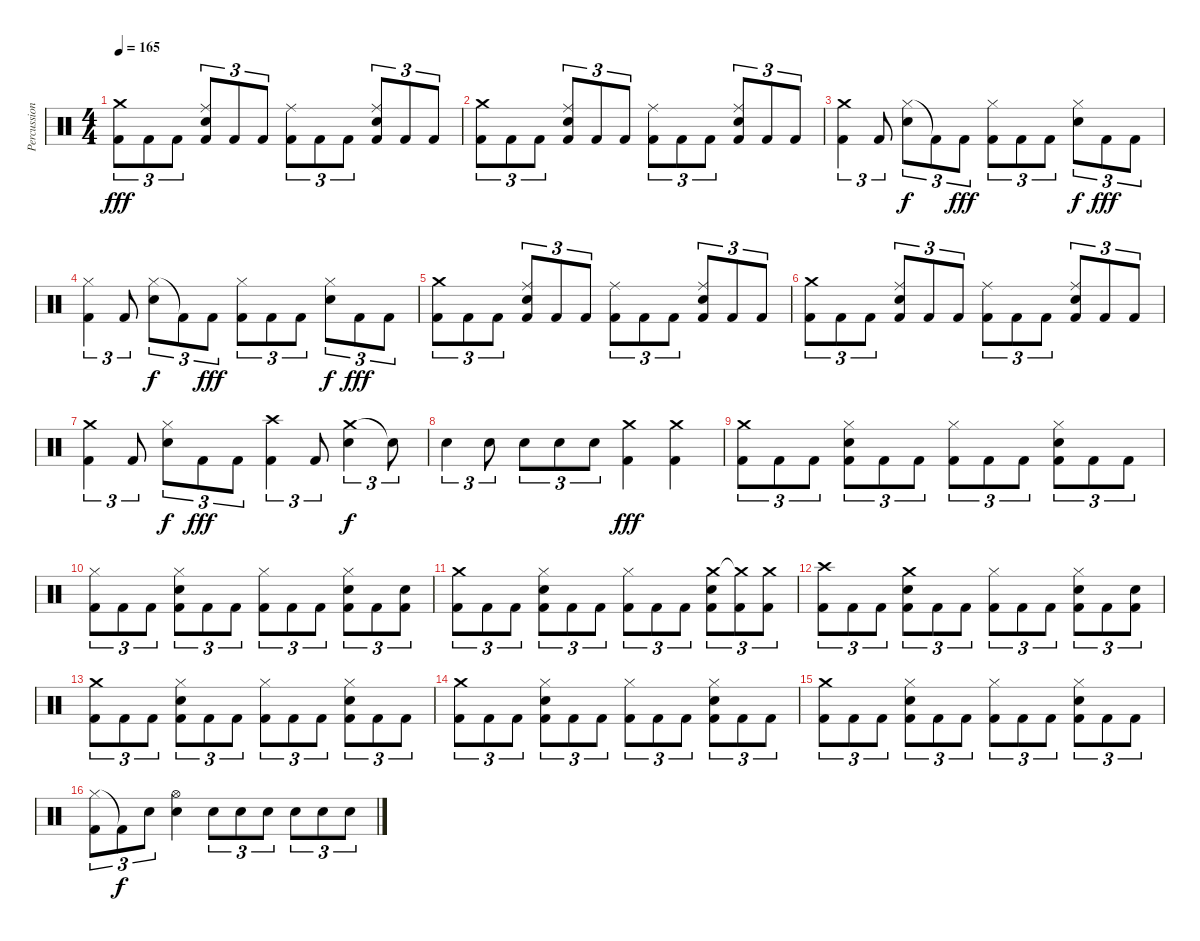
\track ("Percussion" "Percussion") {instrument percussion}
\staff {score}
\articulation defaults
\ts (4 4)
\tempo 165
\clef neutral
\ks c
("Crash medium (hit)" "Kick (hit) 2").8{tu (3 2) dy fff} "Kick (hit) 2".8{tu (3 2)} "Kick (hit) 2".8{tu (3 2)} ("Ride (middle)" "Electric Snare (hit)" "Kick (hit) 2").8{tu (3 2)} "Kick (hit) 2".8{tu (3 2)} "Kick (hit) 2".8{tu (3 2)} ("Ride (middle)" "Kick (hit) 2").8{tu (3 2)} "Kick (hit) 2".8{tu (3 2)} "Kick (hit) 2".8{tu (3 2)} ("Ride (middle)" "Electric Snare (hit)" "Kick (hit) 2").8{tu (3 2)} "Kick (hit) 2".8{tu (3 2)} "Kick (hit) 2".8{tu (3 2)} |
("Crash medium (hit)" "Kick (hit) 2").8{tu (3 2)} "Kick (hit) 2".8{tu (3 2)} "Kick (hit) 2".8{tu (3 2)} ("Ride (middle)" "Electric Snare (hit)" "Kick (hit) 2").8{tu (3 2)} "Kick (hit) 2".8{tu (3 2)} "Kick (hit) 2".8{tu (3 2)} ("Ride (middle)" "Kick (hit) 2").8{tu (3 2)} "Kick (hit) 2".8{tu (3 2)} "Kick (hit) 2".8{tu (3 2)} ("Ride (middle)" "Electric Snare (hit)" "Kick (hit) 2").8{tu (3 2)} "Kick (hit) 2".8{tu (3 2)} "Kick (hit) 2".8{tu (3 2)} |
("Crash medium (hit)" "Kick (hit) 2").4{tu (3 2)} "Kick (hit) 2".8{tu (3 2)} ("Hi-Hat (closed)" "Electric Snare (hit)").8{tu (3 2) dy f} "Kick (hit) 2"{t}.8{tu (3 2)} "Kick (hit) 2".8{tu (3 2) dy fff} ("Hi-Hat (closed)" "Kick (hit) 2").8{tu (3 2)} "Kick (hit) 2".8{tu (3 2)} "Kick (hit) 2".8{tu (3 2)} ("Hi-Hat (closed)" "Electric Snare (hit)").8{tu (3 2) dy f} "Kick (hit) 2".8{tu (3 2) dy fff} "Kick (hit) 2".8{tu (3 2)} |
("Hi-Hat (closed)" "Kick (hit) 2").4{tu (3 2)} "Kick (hit) 2".8{tu (3 2)} ("Hi-Hat (closed)" "Electric Snare (hit)").8{tu (3 2) dy f} "Kick (hit) 2"{t}.8{tu (3 2)} "Kick (hit) 2".8{tu (3 2) dy fff} ("Hi-Hat (closed)" "Kick (hit) 2").8{tu (3 2)} "Kick (hit) 2".8{tu (3 2)} "Kick (hit) 2".8{tu (3 2)} ("Hi-Hat (closed)" "Electric Snare (hit)").8{tu (3 2) dy f} "Kick (hit) 2".8{tu (3 2) dy fff} "Kick (hit) 2".8{tu (3 2)} |
("Crash medium (hit)" "Kick (hit) 2").8{tu (3 2)} "Kick (hit) 2".8{tu (3 2)} "Kick (hit) 2".8{tu (3 2)} ("Ride (middle)" "Electric Snare (hit)" "Kick (hit) 2").8{tu (3 2)} "Kick (hit) 2".8{tu (3 2)} "Kick (hit) 2".8{tu (3 2)} ("Ride (middle)" "Kick (hit) 2").8{tu (3 2)} "Kick (hit) 2".8{tu (3 2)} "Kick (hit) 2".8{tu (3 2)} ("Ride (middle)" "Electric Snare (hit)" "Kick (hit) 2").8{tu (3 2)} "Kick (hit) 2".8{tu (3 2)} "Kick (hit) 2".8{tu (3 2)} |
("Crash medium (hit)" "Kick (hit) 2").8{tu (3 2)} "Kick (hit) 2".8{tu (3 2)} "Kick (hit) 2".8{tu (3 2)} ("Ride (middle)" "Electric Snare (hit)" "Kick (hit) 2").8{tu (3 2)} "Kick (hit) 2".8{tu (3 2)} "Kick (hit) 2".8{tu (3 2)} ("Ride (middle)" "Kick (hit) 2").8{tu (3 2)} "Kick (hit) 2".8{tu (3 2)} "Kick (hit) 2".8{tu (3 2)} ("Ride (middle)" "Electric Snare (hit)" "Kick (hit) 2").8{tu (3 2)} "Kick (hit) 2".8{tu (3 2)} "Kick (hit) 2".8{tu (3 2)} |
("Crash medium (hit)" "Kick (hit) 2").4{tu (3 2)} "Kick (hit) 2".8{tu (3 2)} ("Hi-Hat (closed)" "Electric Snare (hit)").8{tu (3 2) dy f} "Kick (hit) 2".8{tu (3 2) dy fff} "Kick (hit) 2".8{tu (3 2)} ("Crash high (hit)" "Kick (hit) 2").4{tu (3 2)} "Kick (hit) 2".8{tu (3 2)} ("Crash medium (hit)" "Electric Snare (hit)").4{tu (3 2) dy f} "Snare (hit)"{t}.8{tu (3 2)} |
"Electric Snare (hit)".4{tu (3 2)} "Electric Snare (hit)".8{tu (3 2)} "Electric Snare (hit)".8{tu (3 2)} "Electric Snare (hit)".8{tu (3 2)} "Electric Snare (hit)".8{tu (3 2)} ("Crash medium (hit)" "Kick (hit) 2").4{dy fff} ("Crash medium (hit)" "Kick (hit) 2").4 |
("Crash medium (hit)" "Kick (hit) 2").8{tu (3 2)} "Kick (hit) 2".8{tu (3 2)} "Kick (hit) 2".8{tu (3 2)} ("Hi-Hat (closed)" "Electric Snare (hit)" "Kick (hit) 2").8{tu (3 2)} "Kick (hit) 2".8{tu (3 2)} "Kick (hit) 2".8{tu (3 2)} ("Hi-Hat (closed)" "Kick (hit) 2").8{tu (3 2)} "Kick (hit) 2".8{tu (3 2)} "Kick (hit) 2".8{tu (3 2)} ("Hi-Hat (closed)" "Electric Snare (hit)" "Kick (hit) 2").8{tu (3 2)} "Kick (hit) 2".8{tu (3 2)} "Kick (hit) 2".8{tu (3 2)} |
("Hi-Hat (closed)" "Kick (hit) 2").8{tu (3 2)} "Kick (hit) 2".8{tu (3 2)} "Kick (hit) 2".8{tu (3 2)} ("Hi-Hat (closed)" "Electric Snare (hit)" "Kick (hit) 2").8{tu (3 2)} "Kick (hit) 2".8{tu (3 2)} "Kick (hit) 2".8{tu (3 2)} ("Hi-Hat (closed)" "Kick (hit) 2").8{tu (3 2)} "Kick (hit) 2".8{tu (3 2)} "Kick (hit) 2".8{tu (3 2)} ("Hi-Hat (closed)" "Electric Snare (hit)" "Kick (hit) 2").8{tu (3 2)} "Kick (hit) 2".8{tu (3 2)} ("Electric Snare (hit)" "Kick (hit) 2").8{tu (3 2)} |
("Crash medium (hit)" "Kick (hit) 2").8{tu (3 2)} "Kick (hit) 2".8{tu (3 2)} "Kick (hit) 2".8{tu (3 2)} ("Hi-Hat (closed)" "Electric Snare (hit)" "Kick (hit) 2").8{tu (3 2)} "Kick (hit) 2".8{tu (3 2)} "Kick (hit) 2".8{tu (3 2)} ("Hi-Hat (closed)" "Kick (hit) 2").8{tu (3 2)} "Kick (hit) 2".8{tu (3 2)} "Kick (hit) 2".8{tu (3 2)} ("Crash medium (hit)" "Electric Snare (hit)" "Kick (hit) 2").8{tu (3 2)} ("Crash medium (hit)"{t} "Kick (hit) 2").8{tu (3 2)} ("Crash medium (hit)" "Kick (hit) 2").8{tu (3 2)} |
("Crash high (hit)" "Kick (hit) 2").8{tu (3 2)} "Kick (hit) 2".8{tu (3 2)} "Kick (hit) 2".8{tu (3 2)} ("Crash medium (hit)" "Electric Snare (hit)" "Kick (hit) 2").8{tu (3 2)} "Kick (hit) 2".8{tu (3 2)} "Kick (hit) 2".8{tu (3 2)} ("Hi-Hat (closed)" "Kick (hit) 2").8{tu (3 2)} "Kick (hit) 2".8{tu (3 2)} "Kick (hit) 2".8{tu (3 2)} ("Hi-Hat (closed)" "Electric Snare (hit)" "Kick (hit) 2").8{tu (3 2)} "Kick (hit) 2".8{tu (3 2)} ("Electric Snare (hit)" "Kick (hit) 2").8{tu (3 2)} |
("Crash medium (hit)" "Kick (hit) 2").8{tu (3 2)} "Kick (hit) 2".8{tu (3 2)} "Kick (hit) 2".8{tu (3 2)} ("Hi-Hat (closed)" "Electric Snare (hit)" "Kick (hit) 2").8{tu (3 2)} "Kick (hit) 2".8{tu (3 2)} "Kick (hit) 2".8{tu (3 2)} ("Hi-Hat (closed)" "Kick (hit) 2").8{tu (3 2)} "Kick (hit) 2".8{tu (3 2)} "Kick (hit) 2".8{tu (3 2)} ("Hi-Hat (closed)" "Electric Snare (hit)" "Kick (hit) 2").8{tu (3 2)} "Kick (hit) 2".8{tu (3 2)} "Kick (hit) 2".8{tu (3 2)} |
("Crash medium (hit)" "Kick (hit) 2").8{tu (3 2)} "Kick (hit) 2".8{tu (3 2)} "Kick (hit) 2".8{tu (3 2)} ("Hi-Hat (closed)" "Electric Snare (hit)" "Kick (hit) 2").8{tu (3 2)} "Kick (hit) 2".8{tu (3 2)} "Kick (hit) 2".8{tu (3 2)} ("Hi-Hat (closed)" "Kick (hit) 2").8{tu (3 2)} "Kick (hit) 2".8{tu (3 2)} "Kick (hit) 2".8{tu (3 2)} ("Hi-Hat (closed)" "Electric Snare (hit)" "Kick (hit) 2").8{tu (3 2)} "Kick (hit) 2".8{tu (3 2)} "Kick (hit) 2".8{tu (3 2)} |
("Crash medium (hit)" "Kick (hit) 2").8{tu (3 2)} "Kick (hit) 2".8{tu (3 2)} "Kick (hit) 2".8{tu (3 2)} ("Hi-Hat (closed)" "Electric Snare (hit)" "Kick (hit) 2").8{tu (3 2)} "Kick (hit) 2".8{tu (3 2)} "Kick (hit) 2".8{tu (3 2)} ("Hi-Hat (closed)" "Kick (hit) 2").8{tu (3 2)} "Kick (hit) 2".8{tu (3 2)} "Kick (hit) 2".8{tu (3 2)} ("Hi-Hat (closed)" "Electric Snare (hit)" "Kick (hit) 2").8{tu (3 2)} "Kick (hit) 2".8{tu (3 2)} "Kick (hit) 2".8{tu (3 2)} |
("Hi-Hat (closed)" "Kick (hit) 2").8{tu (3 2)} "Kick (hit) 2"{t}.8{tu (3 2) dy f} "Electric Snare (hit)".8{tu (3 2)} ("Hi-Hat (open)" "Electric Snare (hit)").4 "Electric Snare (hit)".8{tu (3 2)} "Electric Snare (hit)".8{tu (3 2)} "Electric Snare (hit)".8{tu (3 2)} "Electric Snare (hit)".8{tu (3 2)} "Electric Snare (hit)".8{tu (3 2)} "Electric Snare (hit)".8{tu (3 2)}
